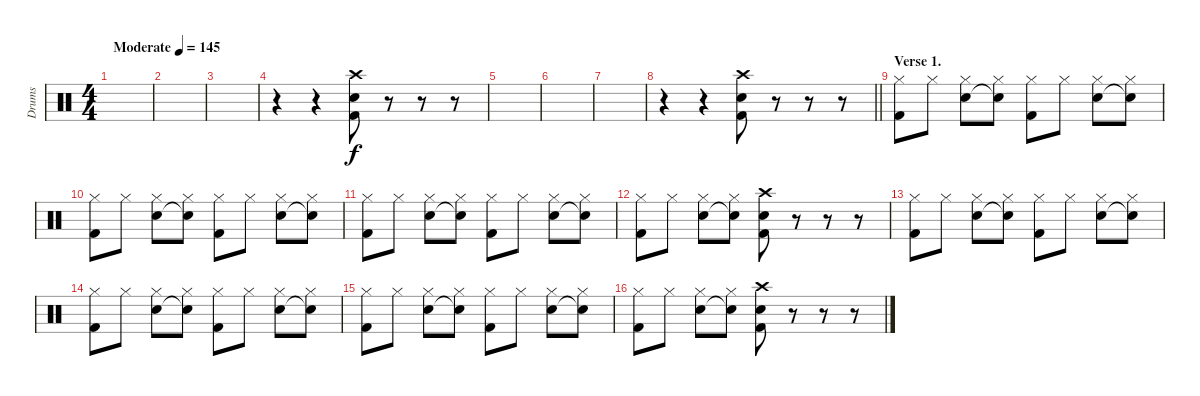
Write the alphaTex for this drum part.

\track ("Drums" "Drums") {instrument percussion}
\staff {score}
\articulation defaults
\ts (4 4)
\tempo (145 "Moderate")
\clef neutral
\ks c
|
|
|
r.4 r.4 ("Crash high (hit)" "Snare (hit) 2" "Kick (hit) 2").8 r.8 r.8 r.8 |
|
|
|
\barLineRight lightlight
r.4 r.4 ("Crash high (hit)" "Snare (hit) 2" "Kick (hit) 2").8 r.8 r.8 r.8 |
\section ("" "Verse 1.")
("Hi-Hat (closed)" "Kick (hit) 2").8 "Hi-Hat (closed)".8 ("Hi-Hat (closed)" "Snare (hit) 2").8 ("Hi-Hat (closed)" "Snare (hit)"{t}).8 ("Hi-Hat (closed)" "Kick (hit) 2").8 "Hi-Hat (closed)".8 ("Hi-Hat (closed)" "Snare (hit) 2").8 ("Hi-Hat (closed)" "Snare (hit)"{t}).8 |
("Hi-Hat (closed)" "Kick (hit) 2").8 "Hi-Hat (closed)".8 ("Hi-Hat (closed)" "Snare (hit) 2").8 ("Hi-Hat (closed)" "Snare (hit)"{t}).8 ("Hi-Hat (closed)" "Kick (hit) 2").8 "Hi-Hat (closed)".8 ("Hi-Hat (closed)" "Snare (hit) 2").8 ("Hi-Hat (closed)" "Snare (hit)"{t}).8 |
("Hi-Hat (closed)" "Kick (hit) 2").8 "Hi-Hat (closed)".8 ("Hi-Hat (closed)" "Snare (hit) 2").8 ("Hi-Hat (closed)" "Snare (hit)"{t}).8 ("Hi-Hat (closed)" "Kick (hit) 2").8 "Hi-Hat (closed)".8 ("Hi-Hat (closed)" "Snare (hit) 2").8 ("Hi-Hat (closed)" "Snare (hit)"{t}).8 |
("Hi-Hat (closed)" "Kick (hit) 2").8 "Hi-Hat (closed)".8 ("Hi-Hat (closed)" "Snare (hit) 2").8 ("Hi-Hat (closed)" "Snare (hit)"{t}).8 ("Crash high (hit)" "Snare (hit) 2" "Kick (hit) 2").8 r.8 r.8 r.8 |
("Hi-Hat (closed)" "Kick (hit) 2").8 "Hi-Hat (closed)".8 ("Hi-Hat (closed)" "Snare (hit) 2").8 ("Hi-Hat (closed)" "Snare (hit)"{t}).8 ("Hi-Hat (closed)" "Kick (hit) 2").8 "Hi-Hat (closed)".8 ("Hi-Hat (closed)" "Snare (hit) 2").8 ("Hi-Hat (closed)" "Snare (hit)"{t}).8 |
("Hi-Hat (closed)" "Kick (hit) 2").8 "Hi-Hat (closed)".8 ("Hi-Hat (closed)" "Snare (hit) 2").8 ("Hi-Hat (closed)" "Snare (hit)"{t}).8 ("Hi-Hat (closed)" "Kick (hit) 2").8 "Hi-Hat (closed)".8 ("Hi-Hat (closed)" "Snare (hit) 2").8 ("Hi-Hat (closed)" "Snare (hit)"{t}).8 |
("Hi-Hat (closed)" "Kick (hit) 2").8 "Hi-Hat (closed)".8 ("Hi-Hat (closed)" "Snare (hit) 2").8 ("Hi-Hat (closed)" "Snare (hit)"{t}).8 ("Hi-Hat (closed)" "Kick (hit) 2").8 "Hi-Hat (closed)".8 ("Hi-Hat (closed)" "Snare (hit) 2").8 ("Hi-Hat (closed)" "Snare (hit)"{t}).8 |
("Hi-Hat (closed)" "Kick (hit) 2").8 "Hi-Hat (closed)".8 ("Hi-Hat (closed)" "Snare (hit) 2").8 ("Hi-Hat (closed)" "Snare (hit)"{t}).8 ("Crash high (hit)" "Snare (hit) 2" "Kick (hit) 2").8 r.8 r.8 r.8
